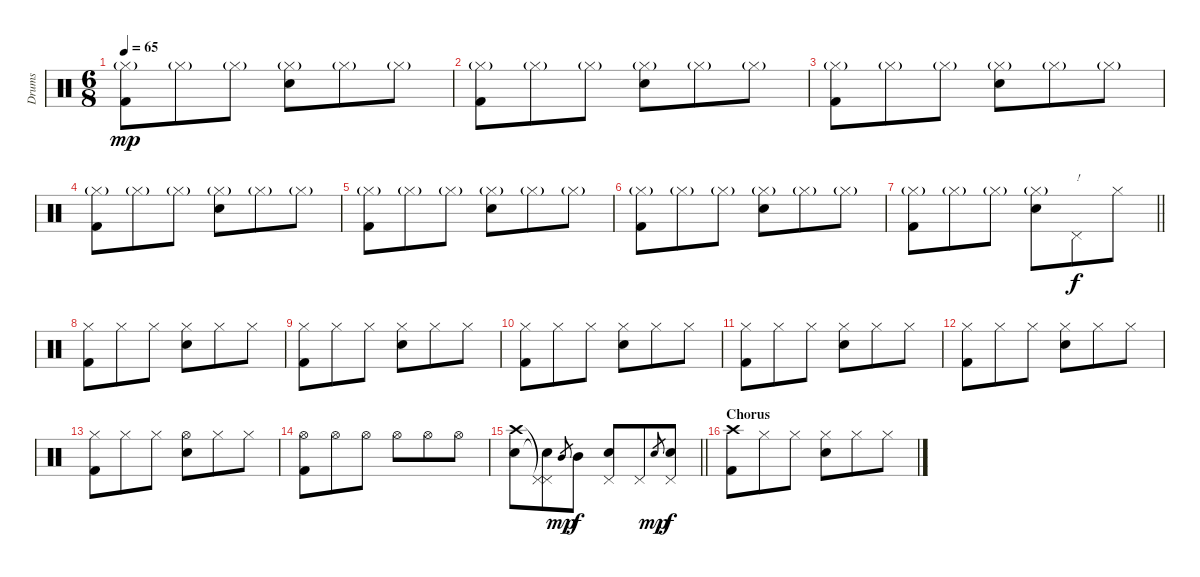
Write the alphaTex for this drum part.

\track ("Drums" "Drums") {instrument percussion}
\staff {score}
\articulation defaults
\ts (6 8)
\tempo 65
\clef neutral
\ks c
("Hi-Hat (closed)"{g} "Kick (hit) 2").8{dy mp} "Hi-Hat (closed)"{g}.8 "Hi-Hat (closed)"{g}.8 ("Hi-Hat (closed)"{g} "Snare (hit) 2").8 "Hi-Hat (closed)"{g}.8 "Hi-Hat (closed)"{g}.8 |
("Hi-Hat (closed)"{g} "Kick (hit) 2").8 "Hi-Hat (closed)"{g}.8 "Hi-Hat (closed)"{g}.8 ("Hi-Hat (closed)"{g} "Snare (hit) 2").8 "Hi-Hat (closed)"{g}.8 "Hi-Hat (closed)"{g}.8 |
("Hi-Hat (closed)"{g} "Kick (hit) 2").8 "Hi-Hat (closed)"{g}.8 "Hi-Hat (closed)"{g}.8 ("Hi-Hat (closed)"{g} "Snare (hit) 2").8 "Hi-Hat (closed)"{g}.8 "Hi-Hat (closed)"{g}.8 |
("Hi-Hat (closed)"{g} "Kick (hit) 2").8 "Hi-Hat (closed)"{g}.8 "Hi-Hat (closed)"{g}.8 ("Hi-Hat (closed)"{g} "Snare (hit) 2").8 "Hi-Hat (closed)"{g}.8 "Hi-Hat (closed)"{g}.8 |
("Hi-Hat (closed)"{g} "Kick (hit) 2").8 "Hi-Hat (closed)"{g}.8 "Hi-Hat (closed)"{g}.8 ("Hi-Hat (closed)"{g} "Snare (hit) 2").8 "Hi-Hat (closed)"{g}.8 "Hi-Hat (closed)"{g}.8 |
("Hi-Hat (closed)"{g} "Kick (hit) 2").8 "Hi-Hat (closed)"{g}.8 "Hi-Hat (closed)"{g}.8 ("Hi-Hat (closed)"{g} "Snare (hit) 2").8 "Hi-Hat (closed)"{g}.8 "Hi-Hat (closed)"{g}.8 |
\barLineRight lightlight
("Hi-Hat (closed)"{g} "Kick (hit) 2").8 "Hi-Hat (closed)"{g}.8 "Hi-Hat (closed)"{g}.8 ("Hi-Hat (closed)"{g} "Snare (hit) 2").8 "Pedal Hi-Hat (hit)".8{txt "!" dy f} "Hi-Hat (closed)".8 |
\section ("" "")
("Hi-Hat (closed)" "Kick (hit) 2").8 "Hi-Hat (closed)".8 "Hi-Hat (closed)".8 ("Hi-Hat (closed)" "Snare (hit) 2").8 "Hi-Hat (closed)".8 "Hi-Hat (closed)".8 |
("Hi-Hat (closed)" "Kick (hit) 2").8 "Hi-Hat (closed)".8 "Hi-Hat (closed)".8 ("Hi-Hat (closed)" "Snare (hit) 2").8 "Hi-Hat (closed)".8 "Hi-Hat (closed)".8 |
("Hi-Hat (closed)" "Kick (hit) 2").8 "Hi-Hat (closed)".8 "Hi-Hat (closed)".8 ("Hi-Hat (closed)" "Snare (hit) 2").8 "Hi-Hat (closed)".8 "Hi-Hat (closed)".8 |
("Hi-Hat (closed)" "Kick (hit) 2").8 "Hi-Hat (closed)".8 "Hi-Hat (closed)".8 ("Hi-Hat (closed)" "Snare (hit) 2").8 "Hi-Hat (closed)".8 "Hi-Hat (closed)".8 |
("Hi-Hat (closed)" "Kick (hit) 2").8 "Hi-Hat (closed)".8 "Hi-Hat (closed)".8 ("Hi-Hat (closed)" "Snare (hit) 2").8 "Hi-Hat (closed)".8 "Hi-Hat (closed)".8 |
("Hi-Hat (closed)" "Kick (hit) 2").8 "Hi-Hat (closed)".8 "Hi-Hat (closed)".8 ("Hi-Hat (open)" "Snare (hit) 2").8 "Hi-Hat (closed)".8 "Hi-Hat (closed)".8 |
("Hi-Hat (open)" "Kick (hit) 2").8 "Hi-Hat (open)".8 "Hi-Hat (open)".8 "Hi-Hat (open)".8 "Hi-Hat (open)".8 "Hi-Hat (open)".8 |
\barLineRight lightlight
("Crash high (hit)" "Snare (hit) 2").8 ("Pedal Hi-Hat (hit)"{t} "Snare (hit)"{t} "Pedal Hi-Hat (hit)").8 "Mid Tom (hit)".8{gr dy mp} "Mid Tom (hit)".8{dy f} ("Snare (hit) 2" "Pedal Hi-Hat (hit)").8 "Pedal Hi-Hat (hit)".8 "Snare (hit) 2".8{gr dy mp} ("Snare (hit) 2" "Pedal Hi-Hat (hit)").8{dy f} |
\section ("" "Chorus")
("Crash high (hit)" "Kick (hit) 2").8 "Hi-Hat (closed)".8 "Hi-Hat (closed)".8 ("Hi-Hat (closed)" "Snare (hit) 2").8 "Hi-Hat (closed)".8 "Hi-Hat (closed)".8
